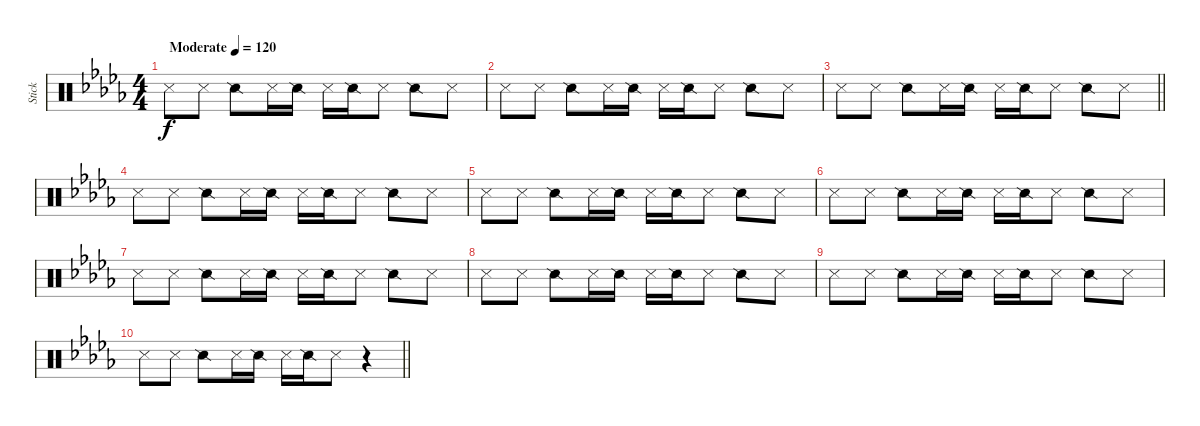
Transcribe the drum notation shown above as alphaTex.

\track ("Stick" "Stick") {instrument percussion}
\staff {score}
\articulation defaults
\ts (4 4)
\tempo (120 "Moderate")
\clef neutral
\ks db "Snare (side stick) 3".8{dy f} "Snare (side stick) 3".8 "Snare (side stick) 2".8 "Snare (side stick) 3".16 "Snare (side stick) 2".16 "Snare (side stick) 3".16 "Snare (side stick) 2".16 "Snare (side stick) 3".8 "Snare (side stick) 2".8 "Snare (side stick) 3".8
|
"Snare (side stick) 3".8 "Snare (side stick) 3".8 "Snare (side stick) 2".8 "Snare (side stick) 3".16 "Snare (side stick) 2".16 "Snare (side stick) 3".16 "Snare (side stick) 2".16 "Snare (side stick) 3".8 "Snare (side stick) 2".8 "Snare (side stick) 3".8 |
\barLineRight lightlight "Snare (side stick) 3".8 "Snare (side stick) 3".8 "Snare (side stick) 2".8 "Snare (side stick) 3".16{txt ""} "Snare (side stick) 2".16 "Snare (side stick) 3".16 "Snare (side stick) 2".16 "Snare (side stick) 3".8 "Snare (side stick) 2".8 "Snare (side stick) 3".8
|
"Snare (side stick) 3".8 "Snare (side stick) 3".8 "Snare (side stick) 2".8 "Snare (side stick) 3".16 "Snare (side stick) 2".16 "Snare (side stick) 3".16 "Snare (side stick) 2".16 "Snare (side stick) 3".8 "Snare (side stick) 2".8 "Snare (side stick) 3".8 |
"Snare (side stick) 3".8 "Snare (side stick) 3".8 "Snare (side stick) 2".8 "Snare (side stick) 3".16 "Snare (side stick) 2".16 "Snare (side stick) 3".16 "Snare (side stick) 2".16 "Snare (side stick) 3".8 "Snare (side stick) 2".8 "Snare (side stick) 3".8 |
"Snare (side stick) 3".8 "Snare (side stick) 3".8 "Snare (side stick) 2".8 "Snare (side stick) 3".16 "Snare (side stick) 2".16 "Snare (side stick) 3".16 "Snare (side stick) 2".16 "Snare (side stick) 3".8 "Snare (side stick) 2".8 "Snare (side stick) 3".8 |
"Snare (side stick) 3".8 "Snare (side stick) 3".8 "Snare (side stick) 2".8 "Snare (side stick) 3".16 "Snare (side stick) 2".16 "Snare (side stick) 3".16 "Snare (side stick) 2".16 "Snare (side stick) 3".8 "Snare (side stick) 2".8 "Snare (side stick) 3".8 |
"Snare (side stick) 3".8 "Snare (side stick) 3".8 "Snare (side stick) 2".8 "Snare (side stick) 3".16 "Snare (side stick) 2".16 "Snare (side stick) 3".16 "Snare (side stick) 2".16 "Snare (side stick) 3".8 "Snare (side stick) 2".8 "Snare (side stick) 3".8 |
"Snare (side stick) 3".8 "Snare (side stick) 3".8 "Snare (side stick) 2".8 "Snare (side stick) 3".16 "Snare (side stick) 2".16 "Snare (side stick) 3".16 "Snare (side stick) 2".16 "Snare (side stick) 3".8 "Snare (side stick) 2".8 "Snare (side stick) 3".8 |
\barLineRight lightlight "Snare (side stick) 3".8 "Snare (side stick) 3".8 "Snare (side stick) 2".8 "Snare (side stick) 3".16 "Snare (side stick) 2".16 "Snare (side stick) 3".16 "Snare (side stick) 2".16 "Snare (side stick) 3".8
r.4
